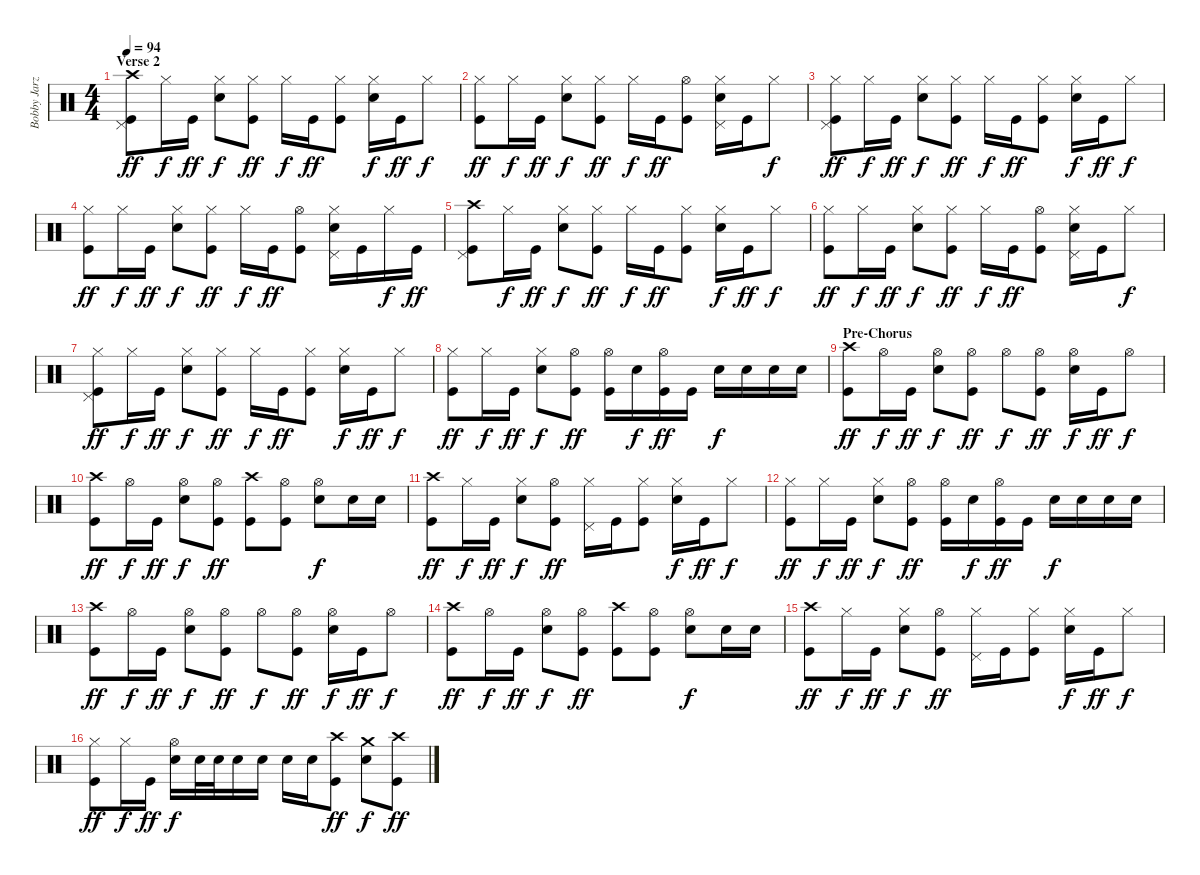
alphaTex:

\track ("Bobby Jarzombek" "Bobby Jarz") {instrument percussion}
\staff {score}
\articulation defaults
\ts (4 4)
\section ("" "Verse 2")
\tempo 94
\clef neutral
\ks c
("Crash high (hit)" "Pedal Hi-Hat (hit)" "Kick (hit)").8{dy ff} "Hi-Hat (closed)".16{dy f} "Kick (hit)".16{dy ff} ("Hi-Hat (closed)" "Electric Snare (hit)").8{dy f} ("Hi-Hat (closed)" "Kick (hit)").8{dy ff} "Hi-Hat (closed)".16{dy f} "Kick (hit)".16{dy ff} ("Hi-Hat (closed)" "Kick (hit)").8 ("Hi-Hat (closed)" "Electric Snare (hit)").16{dy f} "Kick (hit)".16{dy ff} "Hi-Hat (closed)".8{dy f} |
("Hi-Hat (closed)" "Kick (hit)").8{dy ff} "Hi-Hat (closed)".16{dy f} "Kick (hit)".16{dy ff} ("Hi-Hat (closed)" "Electric Snare (hit)").8{dy f} ("Hi-Hat (closed)" "Kick (hit)").8{dy ff} "Hi-Hat (closed)".16{dy f} "Kick (hit)".16{dy ff} ("Hi-Hat (open)" "Kick (hit)").8 ("Hi-Hat (closed)" "Electric Snare (hit)" "Pedal Hi-Hat (hit)").16 "Kick (hit)".16 "Hi-Hat (closed)".8{dy f} |
("Hi-Hat (closed)" "Pedal Hi-Hat (hit)" "Kick (hit)").8{dy ff} "Hi-Hat (closed)".16{dy f} "Kick (hit)".16{dy ff} ("Hi-Hat (closed)" "Electric Snare (hit)").8{dy f} ("Hi-Hat (closed)" "Kick (hit)").8{dy ff} "Hi-Hat (closed)".16{dy f} "Kick (hit)".16{dy ff} ("Hi-Hat (closed)" "Kick (hit)").8 ("Hi-Hat (closed)" "Electric Snare (hit)").16{dy f} "Kick (hit)".16{dy ff} "Hi-Hat (closed)".8{dy f} |
("Hi-Hat (closed)" "Kick (hit)").8{dy ff} "Hi-Hat (closed)".16{dy f} "Kick (hit)".16{dy ff} ("Hi-Hat (closed)" "Electric Snare (hit)").8{dy f} ("Hi-Hat (closed)" "Kick (hit)").8{dy ff} "Hi-Hat (closed)".16{dy f} "Kick (hit)".16{dy ff} ("Hi-Hat (open)" "Kick (hit)").8 ("Hi-Hat (closed)" "Electric Snare (hit)" "Pedal Hi-Hat (hit)").16 "Kick (hit)".16 "Hi-Hat (closed)".16{dy f} "Kick (hit)".16{dy ff} |
("Crash high (hit)" "Pedal Hi-Hat (hit)" "Kick (hit)").8 "Hi-Hat (closed)".16{dy f} "Kick (hit)".16{dy ff} ("Hi-Hat (closed)" "Electric Snare (hit)").8{dy f} ("Hi-Hat (closed)" "Kick (hit)").8{dy ff} "Hi-Hat (closed)".16{dy f} "Kick (hit)".16{dy ff} ("Hi-Hat (closed)" "Kick (hit)").8 ("Hi-Hat (closed)" "Electric Snare (hit)").16{dy f} "Kick (hit)".16{dy ff} "Hi-Hat (closed)".8{dy f} |
("Hi-Hat (closed)" "Kick (hit)").8{dy ff} "Hi-Hat (closed)".16{dy f} "Kick (hit)".16{dy ff} ("Hi-Hat (closed)" "Electric Snare (hit)").8{dy f} ("Hi-Hat (closed)" "Kick (hit)").8{dy ff} "Hi-Hat (closed)".16{dy f} "Kick (hit)".16{dy ff} ("Hi-Hat (open)" "Kick (hit)").8 ("Hi-Hat (closed)" "Electric Snare (hit)" "Pedal Hi-Hat (hit)").16 "Kick (hit)".16 "Hi-Hat (closed)".8{dy f} |
("Hi-Hat (closed)" "Pedal Hi-Hat (hit)" "Kick (hit)").8{dy ff} "Hi-Hat (closed)".16{dy f} "Kick (hit)".16{dy ff} ("Hi-Hat (closed)" "Electric Snare (hit)").8{dy f} ("Hi-Hat (closed)" "Kick (hit)").8{dy ff} "Hi-Hat (closed)".16{dy f} "Kick (hit)".16{dy ff} ("Hi-Hat (closed)" "Kick (hit)").8 ("Hi-Hat (closed)" "Electric Snare (hit)").16{dy f} "Kick (hit)".16{dy ff} "Hi-Hat (closed)".8{dy f} |
("Hi-Hat (closed)" "Kick (hit)").8{dy ff} "Hi-Hat (closed)".16{dy f} "Kick (hit)".16{dy ff} ("Hi-Hat (closed)" "Electric Snare (hit)").8{dy f} ("Hi-Hat (open)" "Kick (hit)").8{dy ff} ("Hi-Hat (open)" "Kick (hit)").16 "Electric Snare (hit)".16{dy f} ("Hi-Hat (open)" "Kick (hit)").16{dy ff} "Kick (hit)".16 "Electric Snare (hit)".16{dy f} "Electric Snare (hit)".16 "Electric Snare (hit)".16 "Electric Snare (hit)".16 |
\section ("" "Pre-Chorus")
("Crash high (hit)" "Kick (hit)").8{dy ff} "Hi-Hat (open)".16{dy f} "Kick (hit)".16{dy ff} ("Hi-Hat (open)" "Electric Snare (hit)").8{dy f} ("Hi-Hat (open)" "Kick (hit)").8{dy ff} "Hi-Hat (open)".8{dy f} ("Hi-Hat (open)" "Kick (hit)").8{dy ff} ("Hi-Hat (open)" "Electric Snare (hit)").16{dy f} "Kick (hit)".16{dy ff} "Hi-Hat (open)".8{dy f} |
("Crash high (hit)" "Kick (hit)").8{dy ff} "Hi-Hat (open)".16{dy f} "Kick (hit)".16{dy ff} ("Hi-Hat (open)" "Electric Snare (hit)").8{dy f} ("Hi-Hat (open)" "Kick (hit)").8{dy ff} ("Crash high (hit)" "Kick (hit)").8 ("Hi-Hat (open)" "Kick (hit)").8 ("Hi-Hat (open)" "Electric Snare (hit)").8{dy f} "Electric Snare (hit)".16 "Electric Snare (hit)".16 |
("Crash high (hit)" "Kick (hit)").8{dy ff} "Hi-Hat (closed)".16{dy f} "Kick (hit)".16{dy ff} ("Hi-Hat (closed)" "Electric Snare (hit)").8{dy f} ("Hi-Hat (open)" "Kick (hit)").8{dy ff} ("Hi-Hat (closed)" "Pedal Hi-Hat (hit)").16 "Kick (hit)".16 ("Hi-Hat (closed)" "Kick (hit)").8 ("Hi-Hat (closed)" "Electric Snare (hit)").16{dy f} "Kick (hit)".16{dy ff} "Hi-Hat (closed)".8{dy f} |
("Hi-Hat (closed)" "Kick (hit)").8{dy ff} "Hi-Hat (closed)".16{dy f} "Kick (hit)".16{dy ff} ("Hi-Hat (closed)" "Electric Snare (hit)").8{dy f} ("Hi-Hat (open)" "Kick (hit)").8{dy ff} ("Hi-Hat (open)" "Kick (hit)").16 "Electric Snare (hit)".16{dy f} ("Hi-Hat (open)" "Kick (hit)").16{dy ff} "Kick (hit)".16 "Electric Snare (hit)".16{dy f} "Electric Snare (hit)".16 "Electric Snare (hit)".16 "Electric Snare (hit)".16 |
("Crash high (hit)" "Kick (hit)").8{dy ff} "Hi-Hat (open)".16{dy f} "Kick (hit)".16{dy ff} ("Hi-Hat (open)" "Electric Snare (hit)").8{dy f} ("Hi-Hat (open)" "Kick (hit)").8{dy ff} "Hi-Hat (open)".8{dy f} ("Hi-Hat (open)" "Kick (hit)").8{dy ff} ("Hi-Hat (open)" "Electric Snare (hit)").16{dy f} "Kick (hit)".16{dy ff} "Hi-Hat (open)".8{dy f} |
("Crash high (hit)" "Kick (hit)").8{dy ff} "Hi-Hat (open)".16{dy f} "Kick (hit)".16{dy ff} ("Hi-Hat (open)" "Electric Snare (hit)").8{dy f} ("Hi-Hat (open)" "Kick (hit)").8{dy ff} ("Crash high (hit)" "Kick (hit)").8 ("Hi-Hat (open)" "Kick (hit)").8 ("Hi-Hat (open)" "Electric Snare (hit)").8{dy f} "Electric Snare (hit)".16 "Electric Snare (hit)".16 |
("Crash high (hit)" "Kick (hit)").8{dy ff} "Hi-Hat (closed)".16{dy f} "Kick (hit)".16{dy ff} ("Hi-Hat (closed)" "Electric Snare (hit)").8{dy f} ("Hi-Hat (open)" "Kick (hit)").8{dy ff} ("Hi-Hat (closed)" "Pedal Hi-Hat (hit)").16 "Kick (hit)".16 ("Hi-Hat (closed)" "Kick (hit)").8 ("Hi-Hat (closed)" "Electric Snare (hit)").16{dy f} "Kick (hit)".16{dy ff} "Hi-Hat (closed)".8{dy f} |
("Hi-Hat (closed)" "Kick (hit)").8{dy ff} "Hi-Hat (closed)".16{dy f} "Kick (hit)".16{dy ff} ("Hi-Hat (open)" "Electric Snare (hit)").16{dy f} "Electric Snare (hit)".32 "Electric Snare (hit)".32 "Electric Snare (hit)".16 "Electric Snare (hit)".16 "Electric Snare (hit)".16 "Electric Snare (hit)".16 ("Crash high (hit)" "Kick (hit)").8{dy ff} ("Crash medium (hit)" "Electric Snare (hit)").8{dy f} ("Crash high (hit)" "Kick (hit)").8{dy ff}
